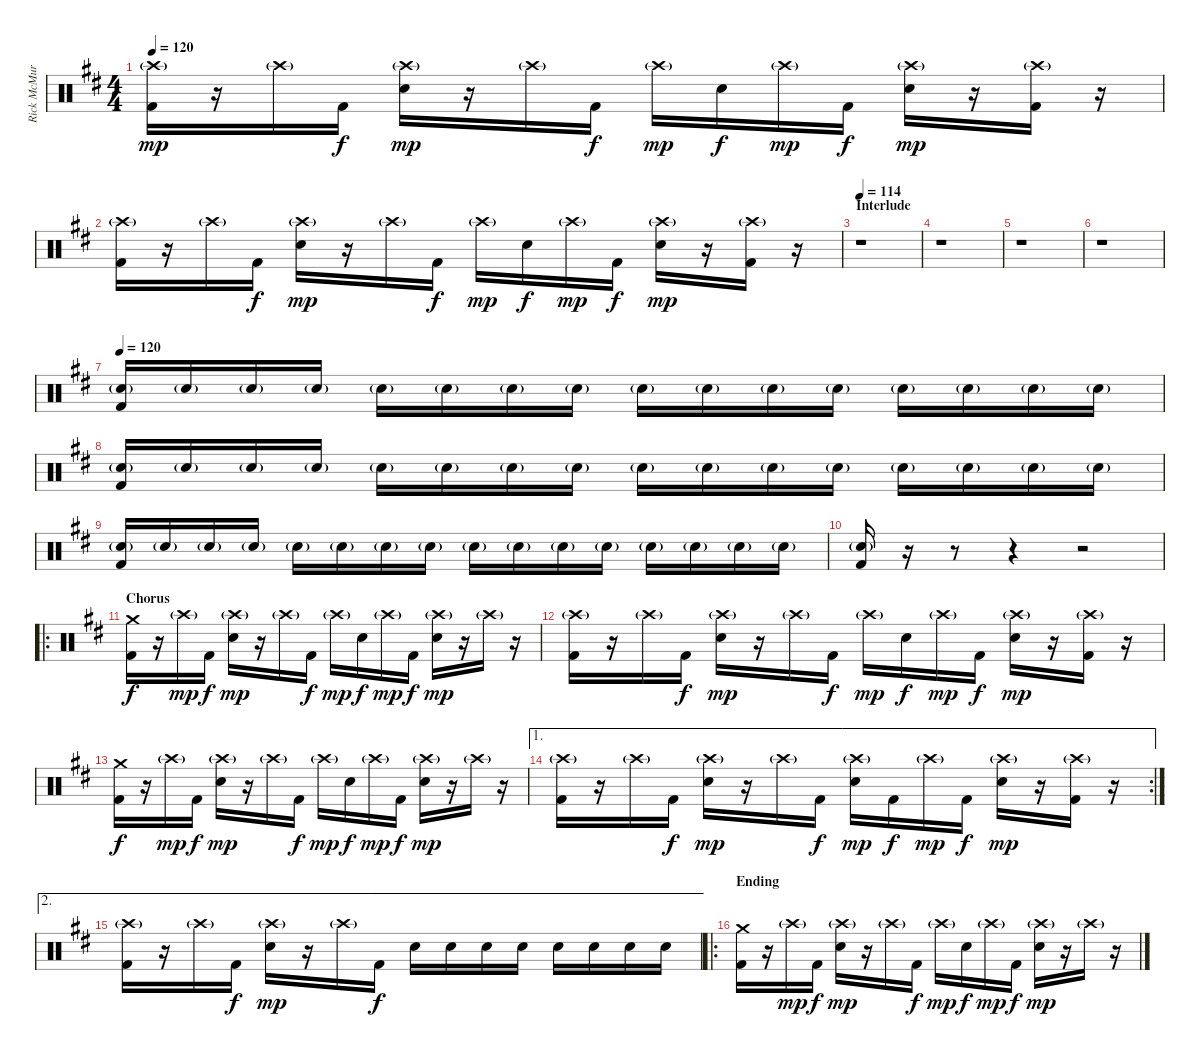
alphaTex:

\track ("Rick McMurray" "Rick McMur") {instrument percussion}
\staff {score}
\articulation defaults
\ts (4 4)
\tempo 120
\clef neutral
\ks d
("Crash high (hit)"{g} "Kick (hit) 2").16{dy mp} r.16 "Crash high (hit)"{g}.16 "Kick (hit) 2".16{dy f} ("Crash high (hit)"{g} "Snare (hit) 2").16{dy mp} r.16 "Crash high (hit)"{g}.16 "Kick (hit) 2".16{dy f} "Crash high (hit)"{g}.16{dy mp} "Snare (hit) 2".16{dy f} "Crash high (hit)"{g}.16{dy mp} "Kick (hit) 2".16{dy f} ("Crash high (hit)"{g} "Snare (hit) 2").16{dy mp} r.16 ("Crash high (hit)"{g} "Kick (hit) 2").16 r.16 |
("Crash high (hit)"{g} "Kick (hit) 2").16 r.16 "Crash high (hit)"{g}.16 "Kick (hit) 2".16{dy f} ("Crash high (hit)"{g} "Snare (hit) 2").16{dy mp} r.16 "Crash high (hit)"{g}.16 "Kick (hit) 2".16{dy f} "Crash high (hit)"{g}.16{dy mp} "Snare (hit) 2".16{dy f} "Crash high (hit)"{g}.16{dy mp} "Kick (hit) 2".16{dy f} ("Crash high (hit)"{g} "Snare (hit) 2").16{dy mp} r.16 ("Crash high (hit)"{g} "Kick (hit) 2").16 r.16 |
\section ("" "Interlude")
\tempo 114
r.1 |
r.1 |
r.1 |
r.1 |
\tempo 120
("Snare (hit) 2"{g} "Kick (hit) 2").16 "Snare (hit) 2"{g}.16 "Snare (hit) 2"{g}.16 "Snare (hit) 2"{g}.16 "Snare (hit) 2"{g}.16 "Snare (hit) 2"{g}.16 "Snare (hit) 2"{g}.16 "Snare (hit) 2"{g}.16 "Snare (hit) 2"{g}.16 "Snare (hit) 2"{g}.16 "Snare (hit) 2"{g}.16 "Snare (hit) 2"{g}.16 "Snare (hit) 2"{g}.16 "Snare (hit) 2"{g}.16 "Snare (hit) 2"{g}.16 "Snare (hit) 2"{g}.16 |
("Snare (hit) 2"{g} "Kick (hit) 2").16 "Snare (hit) 2"{g}.16 "Snare (hit) 2"{g}.16 "Snare (hit) 2"{g}.16 "Snare (hit) 2"{g}.16 "Snare (hit) 2"{g}.16 "Snare (hit) 2"{g}.16 "Snare (hit) 2"{g}.16 "Snare (hit) 2"{g}.16 "Snare (hit) 2"{g}.16 "Snare (hit) 2"{g}.16 "Snare (hit) 2"{g}.16 "Snare (hit) 2"{g}.16 "Snare (hit) 2"{g}.16 "Snare (hit) 2"{g}.16 "Snare (hit) 2"{g}.16 |
("Snare (hit) 2"{g} "Kick (hit) 2").16 "Snare (hit) 2"{g}.16 "Snare (hit) 2"{g}.16 "Snare (hit) 2"{g}.16 "Snare (hit) 2"{g}.16 "Snare (hit) 2"{g}.16 "Snare (hit) 2"{g}.16 "Snare (hit) 2"{g}.16 "Snare (hit) 2"{g}.16 "Snare (hit) 2"{g}.16 "Snare (hit) 2"{g}.16 "Snare (hit) 2"{g}.16 "Snare (hit) 2"{g}.16 "Snare (hit) 2"{g}.16 "Snare (hit) 2"{g}.16 "Snare (hit) 2"{g}.16 |
("Snare (hit) 2"{g} "Kick (hit) 2").16 r.16 r.8 r.4 r.2 |
\ro
\section ("" "Chorus")
("Crash medium (hit)" "Kick (hit) 2").16{dy f} r.16 "Crash high (hit)"{g}.16{dy mp} "Kick (hit) 2".16{dy f} ("Crash high (hit)"{g} "Snare (hit) 2").16{dy mp} r.16 "Crash high (hit)"{g}.16 "Kick (hit) 2".16{dy f} "Crash high (hit)"{g}.16{dy mp} "Snare (hit) 2".16{dy f} "Crash high (hit)"{g}.16{dy mp} "Kick (hit) 2".16{dy f} ("Crash high (hit)"{g} "Snare (hit) 2").16{dy mp} r.16 "Crash high (hit)"{g}.16 r.16 |
("Crash high (hit)"{g} "Kick (hit) 2").16 r.16 "Crash high (hit)"{g}.16 "Kick (hit) 2".16{dy f} ("Crash high (hit)"{g} "Snare (hit) 2").16{dy mp} r.16 "Crash high (hit)"{g}.16 "Kick (hit) 2".16{dy f} "Crash high (hit)"{g}.16{dy mp} "Snare (hit) 2".16{dy f} "Crash high (hit)"{g}.16{dy mp} "Kick (hit) 2".16{dy f} ("Crash high (hit)"{g} "Snare (hit) 2").16{dy mp} r.16 ("Crash high (hit)"{g} "Kick (hit) 2").16 r.16 |
("Crash medium (hit)" "Kick (hit) 2").16{dy f} r.16 "Crash high (hit)"{g}.16{dy mp} "Kick (hit) 2".16{dy f} ("Crash high (hit)"{g} "Snare (hit) 2").16{dy mp} r.16 "Crash high (hit)"{g}.16 "Kick (hit) 2".16{dy f} "Crash high (hit)"{g}.16{dy mp} "Snare (hit) 2".16{dy f} "Crash high (hit)"{g}.16{dy mp} "Kick (hit) 2".16{dy f} ("Crash high (hit)"{g} "Snare (hit) 2").16{dy mp} r.16 "Crash high (hit)"{g}.16 r.16 |
\ae 1
\rc 2
("Crash high (hit)"{g} "Kick (hit) 2").16 r.16 "Crash high (hit)"{g}.16 "Kick (hit) 2".16{dy f} ("Crash high (hit)"{g} "Snare (hit) 2").16{dy mp} r.16 "Crash high (hit)"{g}.16 "Kick (hit) 2".16{dy f} ("Crash high (hit)"{g} "Snare (hit) 2").16{dy mp} "Kick (hit) 2".16{dy f} "Crash high (hit)"{g}.16{dy mp} "Kick (hit) 2".16{dy f} ("Crash high (hit)"{g} "Snare (hit) 2").16{dy mp} r.16 ("Crash high (hit)"{g} "Kick (hit) 2").16 r.16 |
\ae 2
("Crash high (hit)"{g} "Kick (hit) 2").16 r.16 "Crash high (hit)"{g}.16 "Kick (hit) 2".16{dy f} ("Crash high (hit)"{g} "Snare (hit) 2").16{dy mp} r.16 "Crash high (hit)"{g}.16 "Kick (hit) 2".16{dy f} "Snare (hit) 2".16 "Snare (hit) 2".16 "Snare (hit) 2".16 "Snare (hit) 2".16 "Snare (hit) 2".16 "Snare (hit) 2".16 "Snare (hit) 2".16 "Snare (hit) 2".16 |
\ro
\section ("" "Ending")
("Crash medium (hit)" "Kick (hit) 2").16 r.16 "Crash high (hit)"{g}.16{dy mp} "Kick (hit) 2".16{dy f} ("Crash high (hit)"{g} "Snare (hit) 2").16{dy mp} r.16 "Crash high (hit)"{g}.16 "Kick (hit) 2".16{dy f} "Crash high (hit)"{g}.16{dy mp} "Snare (hit) 2".16{dy f} "Crash high (hit)"{g}.16{dy mp} "Kick (hit) 2".16{dy f} ("Crash high (hit)"{g} "Snare (hit) 2").16{dy mp} r.16 "Crash high (hit)"{g}.16 r.16
